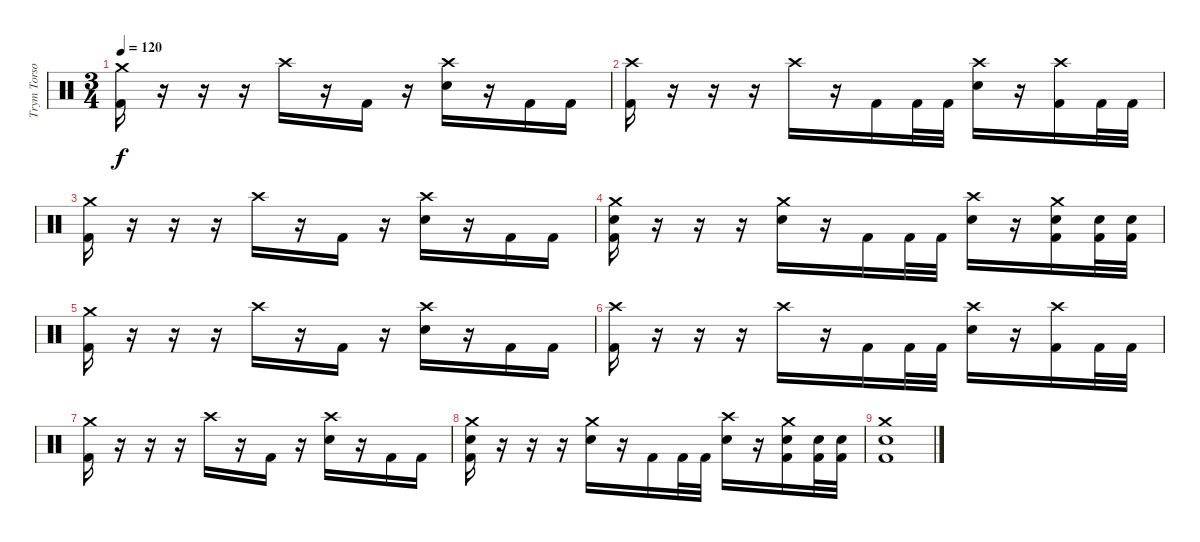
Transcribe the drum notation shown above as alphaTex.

\track ("Trym Torson" "Trym Torso") {instrument percussion}
\staff {score}
\articulation defaults
\ts (3 4)
\tempo 120
\clef neutral
\ks c
("Crash medium (hit)" "Kick (hit) 2").16{dy f} r.16 r.16 r.16 "Crash high (hit)".16 r.16 "Kick (hit) 2".16 r.16 ("Crash high (hit)" "Snare (hit) 2").16 r.16 "Kick (hit) 2".16 "Kick (hit) 2".16 |
("Crash high (hit)" "Kick (hit) 2").16 r.16 r.16 r.16 "Crash high (hit)".16 r.16 "Kick (hit) 2".16 "Kick (hit) 2".32 "Kick (hit) 2".32 ("Crash high (hit)" "Snare (hit) 2").16 r.16 ("Crash high (hit)" "Kick (hit) 2").16 "Kick (hit) 2".32 "Kick (hit) 2".32 |
("Crash medium (hit)" "Kick (hit) 2").16 r.16 r.16 r.16 "Crash high (hit)".16 r.16 "Kick (hit) 2".16 r.16 ("Crash high (hit)" "Snare (hit) 2").16 r.16 "Kick (hit) 2".16 "Kick (hit) 2".16 |
("Crash medium (hit)" "Snare (hit) 2" "Kick (hit) 2").16 r.16 r.16 r.16 ("Crash medium (hit)" "Snare (hit) 2").16 r.16 "Kick (hit) 2".16 "Kick (hit) 2".32 "Kick (hit) 2".32 ("Crash high (hit)" "Snare (hit) 2").16 r.16 ("Crash medium (hit)" "Snare (hit) 2" "Kick (hit) 2").16 ("Snare (hit) 2" "Kick (hit) 2").32 ("Snare (hit) 2" "Kick (hit) 2").32 |
("Crash medium (hit)" "Kick (hit) 2").16 r.16 r.16 r.16 "Crash high (hit)".16 r.16 "Kick (hit) 2".16 r.16 ("Crash high (hit)" "Snare (hit) 2").16 r.16 "Kick (hit) 2".16 "Kick (hit) 2".16 |
("Crash high (hit)" "Kick (hit) 2").16 r.16 r.16 r.16 "Crash high (hit)".16 r.16 "Kick (hit) 2".16 "Kick (hit) 2".32 "Kick (hit) 2".32 ("Crash high (hit)" "Snare (hit) 2").16 r.16 ("Crash high (hit)" "Kick (hit) 2").16 "Kick (hit) 2".32 "Kick (hit) 2".32 |
("Crash medium (hit)" "Kick (hit) 2").16 r.16 r.16 r.16 "Crash high (hit)".16 r.16 "Kick (hit) 2".16 r.16 ("Crash high (hit)" "Snare (hit) 2").16 r.16 "Kick (hit) 2".16 "Kick (hit) 2".16 |
("Crash medium (hit)" "Snare (hit) 2" "Kick (hit) 2").16 r.16 r.16 r.16 ("Crash medium (hit)" "Snare (hit) 2").16 r.16 "Kick (hit) 2".16 "Kick (hit) 2".32 "Kick (hit) 2".32 ("Crash high (hit)" "Snare (hit) 2").16 r.16 ("Crash medium (hit)" "Snare (hit) 2" "Kick (hit) 2").16 ("Snare (hit) 2" "Kick (hit) 2").32 ("Snare (hit) 2" "Kick (hit) 2").32 |
("Crash medium (hit)" "Snare (hit) 2" "Kick (hit) 2").1
